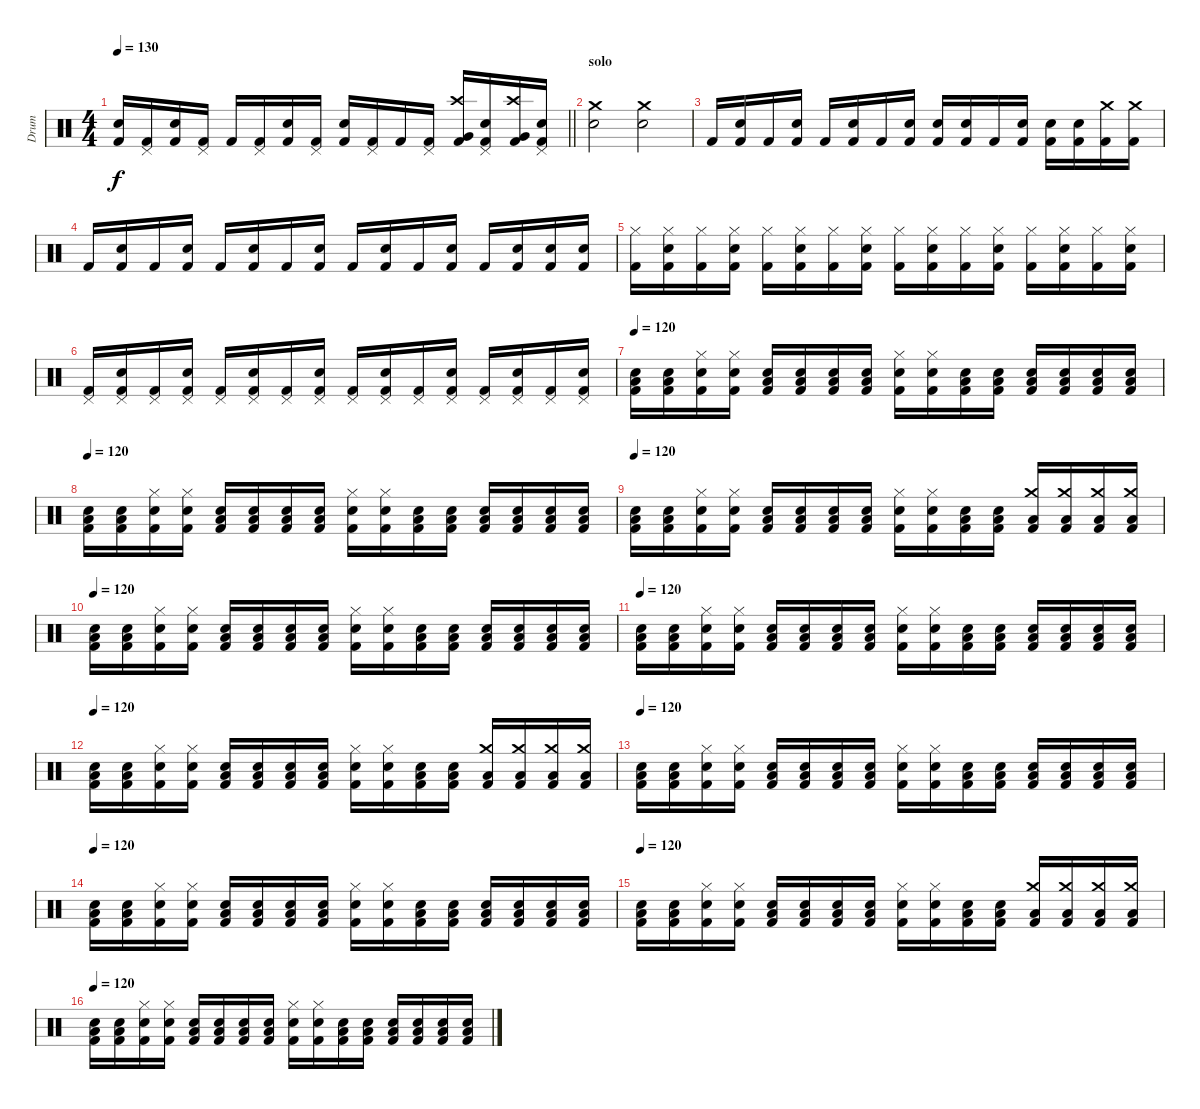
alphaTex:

\track ("Drum" "Drum") {instrument percussion}
\staff {score}
\articulation defaults
\ts (4 4)
\tempo 130
\clef neutral
\barLineRight lightlight
\ks c
("Electric Snare (hit)" "Kick (hit) 2").16{dy f} ("Pedal Hi-Hat (hit)" "Kick (hit) 2").16 ("Electric Snare (hit)" "Kick (hit) 2").16 ("Pedal Hi-Hat (hit)" "Kick (hit) 2").16 "Kick (hit) 2".16 ("Pedal Hi-Hat (hit)" "Kick (hit) 2").16 ("Electric Snare (hit)" "Kick (hit) 2").16 ("Pedal Hi-Hat (hit)" "Kick (hit) 2").16 ("Electric Snare (hit)" "Kick (hit) 2").16 ("Pedal Hi-Hat (hit)" "Kick (hit) 2").16 "Kick (hit) 2".16 ("Pedal Hi-Hat (hit)" "Kick (hit) 2").16 ("Crash high (hit)" "Very Low Tom (hit)" "Kick (hit) 2").16 ("Pedal Hi-Hat (hit)" "Snare (hit) 2" "Kick (hit) 2").16 ("Crash high (hit)" "Very Low Tom (hit)" "Kick (hit) 2").16 ("Pedal Hi-Hat (hit)" "Snare (hit) 2" "Kick (hit) 2").16 |
\section ("" "solo")
("Crash medium (hit)" "Snare (hit) 2").2 ("Crash medium (hit)" "Snare (hit) 2").2 |
"Kick (hit) 2".16 ("Snare (hit) 2" "Kick (hit) 2").16 "Kick (hit) 2".16 ("Snare (hit) 2" "Kick (hit) 2").16 "Kick (hit) 2".16 ("Snare (hit) 2" "Kick (hit) 2").16 "Kick (hit) 2".16 ("Snare (hit) 2" "Kick (hit) 2").16 ("Snare (hit) 2" "Kick (hit) 2").16 ("Snare (hit) 2" "Kick (hit) 2").16 "Kick (hit) 2".16 ("Snare (hit) 2" "Kick (hit) 2").16 ("Snare (hit) 2" "Kick (hit) 2").16 ("Snare (hit) 2" "Kick (hit) 2").16 ("Crash medium (hit)" "Kick (hit) 2").16 ("Crash medium (hit)" "Kick (hit) 2").16 |
"Kick (hit) 2".16 ("Snare (hit) 2" "Kick (hit) 2").16 "Kick (hit) 2".16 ("Snare (hit) 2" "Kick (hit) 2").16 "Kick (hit) 2".16 ("Snare (hit) 2" "Kick (hit) 2").16 "Kick (hit) 2".16 ("Snare (hit) 2" "Kick (hit) 2").16 "Kick (hit) 2".16 ("Snare (hit) 2" "Kick (hit) 2").16 "Kick (hit) 2".16 ("Snare (hit) 2" "Kick (hit) 2").16 "Kick (hit) 2".16 ("Electric Snare (hit)" "Kick (hit) 2").16 ("Electric Snare (hit)" "Kick (hit) 2").16 ("Electric Snare (hit)" "Kick (hit) 2").16 |
("Hi-Hat (closed)" "Kick (hit) 2").16 ("Snare (hit) 2" "Hi-Hat (closed)" "Kick (hit) 2").16 ("Hi-Hat (closed)" "Kick (hit) 2").16 ("Snare (hit) 2" "Hi-Hat (closed)" "Kick (hit) 2").16 ("Hi-Hat (closed)" "Kick (hit) 2").16 ("Snare (hit) 2" "Hi-Hat (closed)" "Kick (hit) 2").16 ("Hi-Hat (closed)" "Kick (hit) 2").16 ("Snare (hit) 2" "Hi-Hat (closed)" "Kick (hit) 2").16 ("Hi-Hat (closed)" "Kick (hit) 2").16 ("Snare (hit) 2" "Hi-Hat (closed)" "Kick (hit) 2").16 ("Hi-Hat (closed)" "Kick (hit) 2").16 ("Snare (hit) 2" "Hi-Hat (closed)" "Kick (hit) 2").16 ("Hi-Hat (closed)" "Kick (hit) 2").16 ("Snare (hit) 2" "Hi-Hat (closed)" "Kick (hit) 2").16 ("Hi-Hat (closed)" "Kick (hit) 2").16 ("Snare (hit) 2" "Hi-Hat (closed)" "Kick (hit) 2").16 |
("Pedal Hi-Hat (hit)" "Kick (hit) 2").16 ("Electric Snare (hit)" "Pedal Hi-Hat (hit)" "Kick (hit) 2").16 ("Pedal Hi-Hat (hit)" "Kick (hit) 2").16 ("Electric Snare (hit)" "Pedal Hi-Hat (hit)" "Kick (hit) 2").16 ("Pedal Hi-Hat (hit)" "Kick (hit) 2").16 ("Electric Snare (hit)" "Pedal Hi-Hat (hit)" "Kick (hit) 2").16 ("Pedal Hi-Hat (hit)" "Kick (hit) 2").16 ("Electric Snare (hit)" "Pedal Hi-Hat (hit)" "Kick (hit) 2").16 ("Pedal Hi-Hat (hit)" "Kick (hit) 2").16 ("Electric Snare (hit)" "Pedal Hi-Hat (hit)" "Kick (hit) 2").16 ("Pedal Hi-Hat (hit)" "Kick (hit) 2").16 ("Electric Snare (hit)" "Pedal Hi-Hat (hit)" "Kick (hit) 2").16 ("Pedal Hi-Hat (hit)" "Kick (hit) 2").16 ("Electric Snare (hit)" "Pedal Hi-Hat (hit)" "Kick (hit) 2").16 ("Pedal Hi-Hat (hit)" "Kick (hit) 2").16 ("Electric Snare (hit)" "Pedal Hi-Hat (hit)" "Kick (hit) 2").16 |
\tempo 120
("Electric Snare (hit)" "Low Tom (hit)" "Kick (hit) 2").16 ("Snare (hit) 2" "Low Tom (hit)" "Kick (hit) 2").16 ("Electric Snare (hit)" "Hi-Hat (closed)" "Kick (hit) 2").16 ("Snare (hit) 2" "Hi-Hat (closed)" "Kick (hit) 2").16 ("Electric Snare (hit)" "Low Floor Tom (hit)" "Kick (hit) 2").16 ("Snare (hit) 2" "Low Floor Tom (hit)" "Kick (hit) 2").16 ("Electric Snare (hit)" "Low Tom (hit)" "Kick (hit) 2").16 ("Snare (hit) 2" "Low Tom (hit)" "Kick (hit) 2").16 ("Electric Snare (hit)" "Hi-Hat (closed)" "Kick (hit) 2").16 ("Snare (hit) 2" "Hi-Hat (closed)" "Kick (hit) 2").16 ("Electric Snare (hit)" "Low Floor Tom (hit)" "Kick (hit) 2").16 ("Snare (hit) 2" "Low Floor Tom (hit)" "Kick (hit) 2").16 ("Electric Snare (hit)" "Low Tom (hit)" "Kick (hit) 2").16 ("Snare (hit) 2" "Low Tom (hit)" "Kick (hit) 2").16 ("Electric Snare (hit)" "Low Tom (hit)" "Kick (hit) 2").16 ("Snare (hit) 2" "Low Tom (hit)" "Kick (hit) 2").16 |
\tempo 120
("Electric Snare (hit)" "Low Tom (hit)" "Kick (hit) 2").16 ("Snare (hit) 2" "Low Tom (hit)" "Kick (hit) 2").16 ("Electric Snare (hit)" "Hi-Hat (closed)" "Kick (hit) 2").16 ("Snare (hit) 2" "Hi-Hat (closed)" "Kick (hit) 2").16 ("Electric Snare (hit)" "Low Floor Tom (hit)" "Kick (hit) 2").16 ("Snare (hit) 2" "Low Floor Tom (hit)" "Kick (hit) 2").16 ("Electric Snare (hit)" "Low Tom (hit)" "Kick (hit) 2").16 ("Snare (hit) 2" "Low Tom (hit)" "Kick (hit) 2").16 ("Electric Snare (hit)" "Hi-Hat (closed)" "Kick (hit) 2").16 ("Snare (hit) 2" "Hi-Hat (closed)" "Kick (hit) 2").16 ("Electric Snare (hit)" "Low Floor Tom (hit)" "Kick (hit) 2").16 ("Snare (hit) 2" "Low Floor Tom (hit)" "Kick (hit) 2").16 ("Electric Snare (hit)" "Low Tom (hit)" "Kick (hit) 2").16 ("Snare (hit) 2" "Low Tom (hit)" "Kick (hit) 2").16 ("Electric Snare (hit)" "Low Tom (hit)" "Kick (hit) 2").16 ("Snare (hit) 2" "Low Tom (hit)" "Kick (hit) 2").16 |
\tempo 120
("Electric Snare (hit)" "Low Tom (hit)" "Kick (hit) 2").16 ("Snare (hit) 2" "Low Tom (hit)" "Kick (hit) 2").16 ("Electric Snare (hit)" "Hi-Hat (closed)" "Kick (hit) 2").16 ("Snare (hit) 2" "Hi-Hat (closed)" "Kick (hit) 2").16 ("Electric Snare (hit)" "Low Floor Tom (hit)" "Kick (hit) 2").16 ("Snare (hit) 2" "Low Floor Tom (hit)" "Kick (hit) 2").16 ("Electric Snare (hit)" "Low Tom (hit)" "Kick (hit) 2").16 ("Snare (hit) 2" "Low Tom (hit)" "Kick (hit) 2").16 ("Electric Snare (hit)" "Hi-Hat (closed)" "Kick (hit) 2").16 ("Snare (hit) 2" "Hi-Hat (closed)" "Kick (hit) 2").16 ("Electric Snare (hit)" "Low Floor Tom (hit)" "Kick (hit) 2").16 ("Snare (hit) 2" "Low Floor Tom (hit)" "Kick (hit) 2").16 ("Crash medium (hit)" "Low Tom (hit)" "Kick (hit) 2").16 ("Crash medium (hit)" "Low Tom (hit)" "Kick (hit) 2").16 ("Crash medium (hit)" "Low Tom (hit)" "Kick (hit) 2").16 ("Crash medium (hit)" "Low Tom (hit)" "Kick (hit) 2").16 |
\tempo 120
("Electric Snare (hit)" "Low Tom (hit)" "Kick (hit) 2").16 ("Snare (hit) 2" "Low Tom (hit)" "Kick (hit) 2").16 ("Electric Snare (hit)" "Hi-Hat (closed)" "Kick (hit) 2").16 ("Snare (hit) 2" "Hi-Hat (closed)" "Kick (hit) 2").16 ("Electric Snare (hit)" "Low Floor Tom (hit)" "Kick (hit) 2").16 ("Snare (hit) 2" "Low Floor Tom (hit)" "Kick (hit) 2").16 ("Electric Snare (hit)" "Low Tom (hit)" "Kick (hit) 2").16 ("Snare (hit) 2" "Low Tom (hit)" "Kick (hit) 2").16 ("Electric Snare (hit)" "Hi-Hat (closed)" "Kick (hit) 2").16 ("Snare (hit) 2" "Hi-Hat (closed)" "Kick (hit) 2").16 ("Electric Snare (hit)" "Low Floor Tom (hit)" "Kick (hit) 2").16 ("Snare (hit) 2" "Low Floor Tom (hit)" "Kick (hit) 2").16 ("Electric Snare (hit)" "Low Tom (hit)" "Kick (hit) 2").16 ("Snare (hit) 2" "Low Tom (hit)" "Kick (hit) 2").16 ("Electric Snare (hit)" "Low Tom (hit)" "Kick (hit) 2").16 ("Snare (hit) 2" "Low Tom (hit)" "Kick (hit) 2").16 |
\tempo 120
("Electric Snare (hit)" "Low Tom (hit)" "Kick (hit) 2").16 ("Snare (hit) 2" "Low Tom (hit)" "Kick (hit) 2").16 ("Electric Snare (hit)" "Hi-Hat (closed)" "Kick (hit) 2").16 ("Snare (hit) 2" "Hi-Hat (closed)" "Kick (hit) 2").16 ("Electric Snare (hit)" "Low Floor Tom (hit)" "Kick (hit) 2").16 ("Snare (hit) 2" "Low Floor Tom (hit)" "Kick (hit) 2").16 ("Electric Snare (hit)" "Low Tom (hit)" "Kick (hit) 2").16 ("Snare (hit) 2" "Low Tom (hit)" "Kick (hit) 2").16 ("Electric Snare (hit)" "Hi-Hat (closed)" "Kick (hit) 2").16 ("Snare (hit) 2" "Hi-Hat (closed)" "Kick (hit) 2").16 ("Electric Snare (hit)" "Low Floor Tom (hit)" "Kick (hit) 2").16 ("Snare (hit) 2" "Low Floor Tom (hit)" "Kick (hit) 2").16 ("Electric Snare (hit)" "Low Tom (hit)" "Kick (hit) 2").16 ("Snare (hit) 2" "Low Tom (hit)" "Kick (hit) 2").16 ("Electric Snare (hit)" "Low Tom (hit)" "Kick (hit) 2").16 ("Snare (hit) 2" "Low Tom (hit)" "Kick (hit) 2").16 |
\tempo 120
("Electric Snare (hit)" "Low Tom (hit)" "Kick (hit) 2").16 ("Snare (hit) 2" "Low Tom (hit)" "Kick (hit) 2").16 ("Electric Snare (hit)" "Hi-Hat (closed)" "Kick (hit) 2").16 ("Snare (hit) 2" "Hi-Hat (closed)" "Kick (hit) 2").16 ("Electric Snare (hit)" "Low Floor Tom (hit)" "Kick (hit) 2").16 ("Snare (hit) 2" "Low Floor Tom (hit)" "Kick (hit) 2").16 ("Electric Snare (hit)" "Low Tom (hit)" "Kick (hit) 2").16 ("Snare (hit) 2" "Low Tom (hit)" "Kick (hit) 2").16 ("Electric Snare (hit)" "Hi-Hat (closed)" "Kick (hit) 2").16 ("Snare (hit) 2" "Hi-Hat (closed)" "Kick (hit) 2").16 ("Electric Snare (hit)" "Low Floor Tom (hit)" "Kick (hit) 2").16 ("Snare (hit) 2" "Low Floor Tom (hit)" "Kick (hit) 2").16 ("Crash medium (hit)" "Low Tom (hit)" "Kick (hit) 2").16 ("Crash medium (hit)" "Low Tom (hit)" "Kick (hit) 2").16 ("Crash medium (hit)" "Low Tom (hit)" "Kick (hit) 2").16 ("Crash medium (hit)" "Low Tom (hit)" "Kick (hit) 2").16 |
\tempo 120
("Electric Snare (hit)" "Low Tom (hit)" "Kick (hit) 2").16 ("Snare (hit) 2" "Low Tom (hit)" "Kick (hit) 2").16 ("Electric Snare (hit)" "Hi-Hat (closed)" "Kick (hit) 2").16 ("Snare (hit) 2" "Hi-Hat (closed)" "Kick (hit) 2").16 ("Electric Snare (hit)" "Low Floor Tom (hit)" "Kick (hit) 2").16 ("Snare (hit) 2" "Low Floor Tom (hit)" "Kick (hit) 2").16 ("Electric Snare (hit)" "Low Tom (hit)" "Kick (hit) 2").16 ("Snare (hit) 2" "Low Tom (hit)" "Kick (hit) 2").16 ("Electric Snare (hit)" "Hi-Hat (closed)" "Kick (hit) 2").16 ("Snare (hit) 2" "Hi-Hat (closed)" "Kick (hit) 2").16 ("Electric Snare (hit)" "Low Floor Tom (hit)" "Kick (hit) 2").16 ("Snare (hit) 2" "Low Floor Tom (hit)" "Kick (hit) 2").16 ("Electric Snare (hit)" "Low Tom (hit)" "Kick (hit) 2").16 ("Snare (hit) 2" "Low Tom (hit)" "Kick (hit) 2").16 ("Electric Snare (hit)" "Low Tom (hit)" "Kick (hit) 2").16 ("Snare (hit) 2" "Low Tom (hit)" "Kick (hit) 2").16 |
\tempo 120
("Electric Snare (hit)" "Low Tom (hit)" "Kick (hit) 2").16 ("Snare (hit) 2" "Low Tom (hit)" "Kick (hit) 2").16 ("Electric Snare (hit)" "Hi-Hat (closed)" "Kick (hit) 2").16 ("Snare (hit) 2" "Hi-Hat (closed)" "Kick (hit) 2").16 ("Electric Snare (hit)" "Low Floor Tom (hit)" "Kick (hit) 2").16 ("Snare (hit) 2" "Low Floor Tom (hit)" "Kick (hit) 2").16 ("Electric Snare (hit)" "Low Tom (hit)" "Kick (hit) 2").16 ("Snare (hit) 2" "Low Tom (hit)" "Kick (hit) 2").16 ("Electric Snare (hit)" "Hi-Hat (closed)" "Kick (hit) 2").16 ("Snare (hit) 2" "Hi-Hat (closed)" "Kick (hit) 2").16 ("Electric Snare (hit)" "Low Floor Tom (hit)" "Kick (hit) 2").16 ("Snare (hit) 2" "Low Floor Tom (hit)" "Kick (hit) 2").16 ("Electric Snare (hit)" "Low Tom (hit)" "Kick (hit) 2").16 ("Snare (hit) 2" "Low Tom (hit)" "Kick (hit) 2").16 ("Electric Snare (hit)" "Low Tom (hit)" "Kick (hit) 2").16 ("Snare (hit) 2" "Low Tom (hit)" "Kick (hit) 2").16 |
\tempo 120
("Electric Snare (hit)" "Low Tom (hit)" "Kick (hit) 2").16 ("Snare (hit) 2" "Low Tom (hit)" "Kick (hit) 2").16 ("Electric Snare (hit)" "Hi-Hat (closed)" "Kick (hit) 2").16 ("Snare (hit) 2" "Hi-Hat (closed)" "Kick (hit) 2").16 ("Electric Snare (hit)" "Low Floor Tom (hit)" "Kick (hit) 2").16 ("Snare (hit) 2" "Low Floor Tom (hit)" "Kick (hit) 2").16 ("Electric Snare (hit)" "Low Tom (hit)" "Kick (hit) 2").16 ("Snare (hit) 2" "Low Tom (hit)" "Kick (hit) 2").16 ("Electric Snare (hit)" "Hi-Hat (closed)" "Kick (hit) 2").16 ("Snare (hit) 2" "Hi-Hat (closed)" "Kick (hit) 2").16 ("Electric Snare (hit)" "Low Floor Tom (hit)" "Kick (hit) 2").16 ("Snare (hit) 2" "Low Floor Tom (hit)" "Kick (hit) 2").16 ("Crash medium (hit)" "Low Tom (hit)" "Kick (hit) 2").16 ("Crash medium (hit)" "Low Tom (hit)" "Kick (hit) 2").16 ("Crash medium (hit)" "Low Tom (hit)" "Kick (hit) 2").16 ("Crash medium (hit)" "Low Tom (hit)" "Kick (hit) 2").16 |
\tempo 120
("Electric Snare (hit)" "Low Tom (hit)" "Kick (hit) 2").16 ("Snare (hit) 2" "Low Tom (hit)" "Kick (hit) 2").16 ("Electric Snare (hit)" "Hi-Hat (closed)" "Kick (hit) 2").16 ("Snare (hit) 2" "Hi-Hat (closed)" "Kick (hit) 2").16 ("Electric Snare (hit)" "Low Floor Tom (hit)" "Kick (hit) 2").16 ("Snare (hit) 2" "Low Floor Tom (hit)" "Kick (hit) 2").16 ("Electric Snare (hit)" "Low Tom (hit)" "Kick (hit) 2").16 ("Snare (hit) 2" "Low Tom (hit)" "Kick (hit) 2").16 ("Electric Snare (hit)" "Hi-Hat (closed)" "Kick (hit) 2").16 ("Snare (hit) 2" "Hi-Hat (closed)" "Kick (hit) 2").16 ("Electric Snare (hit)" "Low Floor Tom (hit)" "Kick (hit) 2").16 ("Snare (hit) 2" "Low Floor Tom (hit)" "Kick (hit) 2").16 ("Electric Snare (hit)" "Low Tom (hit)" "Kick (hit) 2").16 ("Snare (hit) 2" "Low Tom (hit)" "Kick (hit) 2").16 ("Electric Snare (hit)" "Low Tom (hit)" "Kick (hit) 2").16 ("Snare (hit) 2" "Low Tom (hit)" "Kick (hit) 2").16
